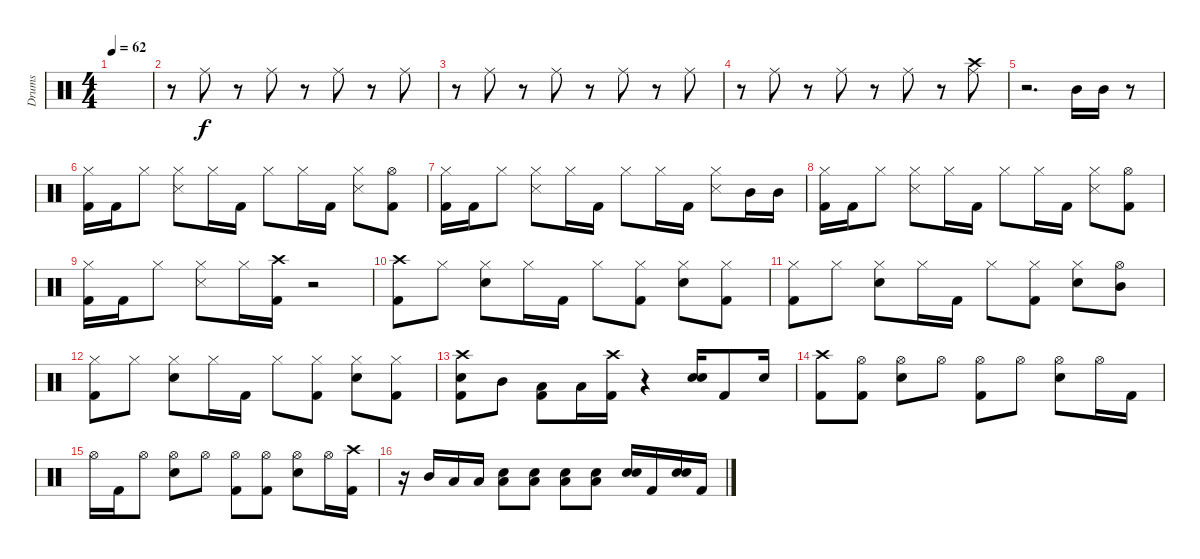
\track ("Drums" "Drums") {instrument percussion}
\staff {score}
\articulation defaults
\ts (4 4)
\tempo 62
\clef neutral
\ks c
|
r.8 "Ride (middle)".8 r.8 "Ride (middle)".8 r.8 "Ride (middle)".8 r.8 "Ride (middle)".8 |
r.8 "Ride (middle)".8 r.8 "Ride (middle)".8 r.8 "Ride (middle)".8 r.8 "Ride (middle)".8 |
r.8 "Ride (middle)".8 r.8 "Ride (middle)".8 r.8 "Ride (middle)".8 r.8 ("Crash high (hit)" "Ride (middle)").8 |
r.2{d} "Mid Tom (hit)".16 "Mid Tom (hit)".16 r.8 |
("Hi-Hat (closed)" "Kick (hit) 2").16 "Kick (hit) 2".16 "Hi-Hat (closed)".8 ("Hi-Hat (closed)" "Snare (side stick) 3").8 "Hi-Hat (closed)".16 "Kick (hit) 2".16 "Hi-Hat (closed)".8 "Hi-Hat (closed)".16 "Kick (hit) 2".16 ("Hi-Hat (closed)" "Snare (side stick) 3").8 ("Hi-Hat (open)" "Kick (hit) 2").8 |
("Hi-Hat (closed)" "Kick (hit) 2").16 "Kick (hit) 2".16 "Hi-Hat (closed)".8 ("Hi-Hat (closed)" "Snare (side stick) 3").8 "Hi-Hat (closed)".16 "Kick (hit) 2".16 "Hi-Hat (closed)".8 "Hi-Hat (closed)".16 "Kick (hit) 2".16 ("Hi-Hat (closed)" "Snare (side stick) 3").8 "Mid Tom (hit)".16 "Mid Tom (hit)".16 |
("Hi-Hat (closed)" "Kick (hit) 2").16 "Kick (hit) 2".16 "Hi-Hat (closed)".8 ("Hi-Hat (closed)" "Snare (side stick) 3").8 "Hi-Hat (closed)".16 "Kick (hit) 2".16 "Hi-Hat (closed)".8 "Hi-Hat (closed)".16 "Kick (hit) 2".16 ("Hi-Hat (closed)" "Snare (side stick) 3").8 ("Hi-Hat (open)" "Kick (hit) 2").8 |
("Hi-Hat (closed)" "Kick (hit) 2").16 "Kick (hit) 2".16 "Hi-Hat (closed)".8 ("Hi-Hat (closed)" "Snare (side stick) 3").8 "Hi-Hat (closed)".16 ("Crash high (hit)" "Kick (hit) 2").16 r.2 |
("Crash high (hit)" "Kick (hit) 2").8 "Hi-Hat (closed)".8 ("Hi-Hat (closed)" "Snare (hit) 2").8 "Hi-Hat (closed)".16 "Kick (hit) 2".16 "Hi-Hat (closed)".8 ("Hi-Hat (closed)" "Kick (hit) 2").8 ("Hi-Hat (closed)" "Snare (hit) 2").8 ("Hi-Hat (closed)" "Kick (hit) 2").8 |
("Hi-Hat (closed)" "Kick (hit) 2").8 "Hi-Hat (closed)".8 ("Hi-Hat (closed)" "Snare (hit) 2").8 "Hi-Hat (closed)".16 "Kick (hit) 2".16 "Hi-Hat (closed)".8 ("Hi-Hat (closed)" "Kick (hit) 2").8 ("Hi-Hat (closed)" "Snare (hit) 2").8 ("Hi-Hat (open)" "Mid Tom (hit)").8 |
("Hi-Hat (closed)" "Kick (hit) 2").8 "Hi-Hat (closed)".8 ("Hi-Hat (closed)" "Snare (hit) 2").8 "Hi-Hat (closed)".16 "Kick (hit) 2".16 "Hi-Hat (closed)".8 ("Hi-Hat (closed)" "Kick (hit) 2").8 ("Hi-Hat (closed)" "Snare (hit) 2").8 ("Hi-Hat (closed)" "Kick (hit) 2").8 |
("Crash high (hit)" "Snare (hit) 2" "Kick (hit) 2").8 "Mid Tom (hit)".8 ("Low Tom (hit)" "Kick (hit) 2").8 "Low Floor Tom (hit)".16 ("Crash high (hit)" "Kick (hit) 2").16 r.4 ("Snare (hit) 2" "Snare (hit) 2").16{bd 240} "Kick (hit) 2".8 "Snare (hit) 2".16 |
("Crash high (hit)" "Kick (hit) 2").8 ("Hi-Hat (open)" "Kick (hit) 2").8 ("Hi-Hat (open)" "Snare (hit) 2").8 "Hi-Hat (open)".8 ("Hi-Hat (open)" "Kick (hit) 2").8 "Hi-Hat (open)".8 ("Hi-Hat (open)" "Snare (hit) 2").8 "Hi-Hat (open)".16 "Kick (hit) 2".16 |
"Hi-Hat (open)".16 "Kick (hit) 2".16 "Hi-Hat (open)".8 ("Hi-Hat (open)" "Snare (hit) 2").8 "Hi-Hat (open)".8 ("Hi-Hat (open)" "Kick (hit) 2").8 ("Hi-Hat (open)" "Kick (hit) 2").8 ("Hi-Hat (open)" "Snare (hit) 2").8 "Hi-Hat (open)".16 ("Crash high (hit)" "Kick (hit) 2").16 |
r.16 "Mid Tom (hit)".16 "Low Tom (hit)".16 "Low Floor Tom (hit)".16 ("Low Floor Tom (hit)" "Snare (hit) 2").8 ("Low Floor Tom (hit)" "Snare (hit) 2").8 ("Low Floor Tom (hit)" "Snare (hit) 2").8 ("Low Floor Tom (hit)" "Snare (hit) 2").8 ("Snare (hit) 2" "Snare (hit) 2").16{bd 240} "Kick (hit) 2".16 ("Snare (hit) 2" "Snare (hit) 2").16{bd 240} "Kick (hit) 2".16
